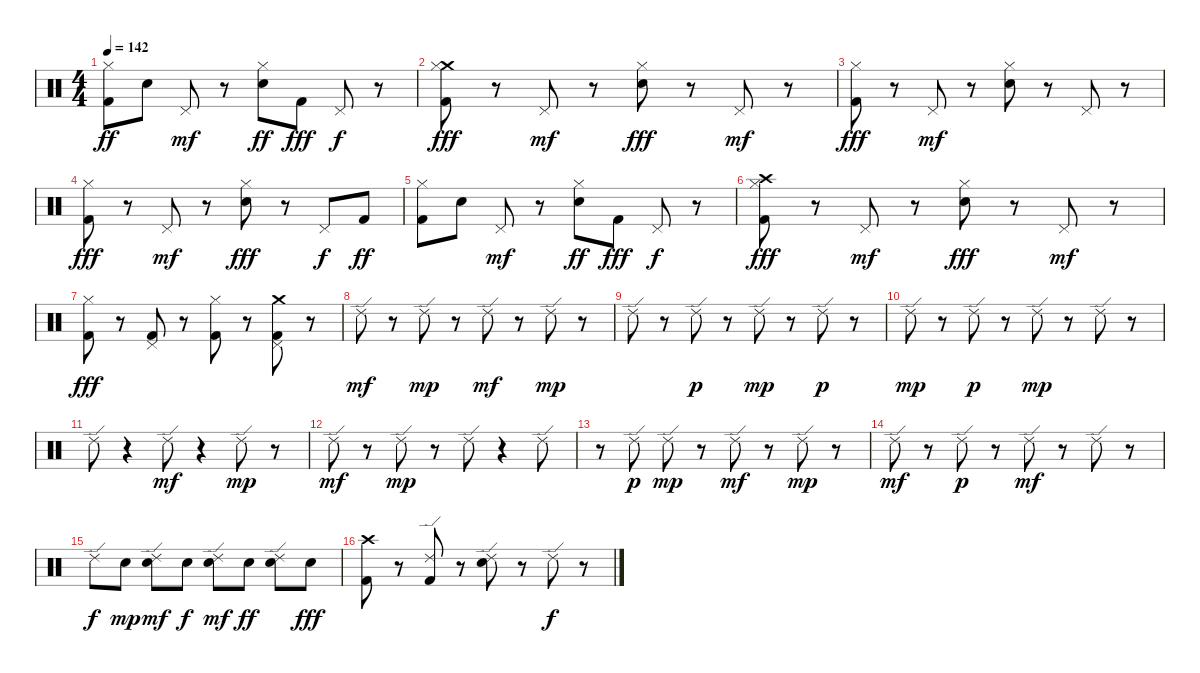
\track "" {instrument percussion}
\staff {score}
\articulation defaults
\ts (4 4)
\tempo 142
\clef neutral
\ks c
("Kick (hit) 2" "Hi-Hat (closed)").8{dy ff} "Electric Snare (hit)".8 "Pedal Hi-Hat (hit)".8{dy mf} r.8 ("Electric Snare (hit)" "Hi-Hat (closed)").8{dy ff} "Kick (hit) 2".8{dy fff} "Pedal Hi-Hat (hit)".8{dy f} r.8 |
("Crash medium (hit)" "Kick (hit) 2" "Hi-Hat (closed)").8{dy fff} r.8 "Pedal Hi-Hat (hit)".8{dy mf} r.8 ("Electric Snare (hit)" "Hi-Hat (closed)").8{dy fff} r.8 "Pedal Hi-Hat (hit)".8{dy mf} r.8 |
("Kick (hit) 2" "Hi-Hat (closed)").8{dy fff} r.8 "Pedal Hi-Hat (hit)".8{dy mf} r.8 ("Electric Snare (hit)" "Hi-Hat (closed)").8 r.8 "Pedal Hi-Hat (hit)".8 r.8 |
("Kick (hit) 2" "Hi-Hat (closed)").8{dy fff} r.8 "Pedal Hi-Hat (hit)".8{dy mf} r.8 ("Electric Snare (hit)" "Hi-Hat (closed)").8{dy fff} r.8 "Pedal Hi-Hat (hit)".8{dy f} "Kick (hit) 2".8{dy ff} |
("Kick (hit) 2" "Hi-Hat (closed)").8 "Electric Snare (hit)".8 "Pedal Hi-Hat (hit)".8{dy mf} r.8 ("Electric Snare (hit)" "Hi-Hat (closed)").8{dy ff} "Kick (hit) 2".8{dy fff} "Pedal Hi-Hat (hit)".8{dy f} r.8 |
("Crash high (hit)" "Kick (hit) 2" "Hi-Hat (closed)").8{dy fff} r.8 "Pedal Hi-Hat (hit)".8{dy mf} r.8 ("Electric Snare (hit)" "Hi-Hat (closed)").8{dy fff} r.8 "Pedal Hi-Hat (hit)".8{dy mf} r.8 |
("Kick (hit) 2" "Hi-Hat (closed)").8{dy fff} r.8 ("Pedal Hi-Hat (hit)" "Kick (hit) 2").8 r.8 ("Kick (hit) 2" "Hi-Hat (closed)").8 r.8 ("Crash medium (hit)" "Pedal Hi-Hat (hit)" "Kick (hit) 2").8 r.8 |
"Ride (edge) 2".8{dy mf} r.8 "Ride (edge) 2".8{dy mp} r.8 "Ride (edge) 2".8{dy mf} r.8 "Ride (edge) 2".8{dy mp} r.8 |
"Ride (edge) 2".8 r.8 "Ride (edge) 2".8{dy p} r.8 "Ride (edge) 2".8{dy mp} r.8 "Ride (edge) 2".8{dy p} r.8 |
"Ride (edge) 2".8{dy mp} r.8 "Ride (edge) 2".8{dy p} r.8 "Ride (edge) 2".8{dy mp} r.8 "Ride (edge) 2".8 r.8 |
"Ride (edge) 2".8 r.4 "Ride (edge) 2".8{dy mf} r.4 "Ride (edge) 2".8{dy mp} r.8 |
"Ride (edge) 2".8{dy mf} r.8 "Ride (edge) 2".8{dy mp} r.8 "Ride (edge) 2".8 r.4 "Ride (edge) 2".8 |
r.8 "Ride (edge) 2".8{dy p} "Ride (edge) 2".8{dy mp} r.8 "Ride (edge) 2".8{dy mf} r.8 "Ride (edge) 2".8{dy mp} r.8 |
"Ride (edge) 2".8{dy mf} r.8 "Ride (edge) 2".8{dy p} r.8 "Ride (edge) 2".8{dy mf} r.8 "Ride (edge) 2".8 r.8 |
"Ride (edge) 2".8{dy f} "Electric Snare (hit)".8{dy mp} ("Electric Snare (hit)" "Ride (edge) 2").8{dy mf} "Electric Snare (hit)".8{dy f} ("Electric Snare (hit)" "Ride (edge) 2").8{dy mf} "Electric Snare (hit)".8{dy ff} ("Electric Snare (hit)" "Ride (edge) 2").8 "Electric Snare (hit)".8{dy fff} |
("Kick (hit) 2" "Crash high (hit)").8 r.8 ("Ride (edge) 2" "Kick (hit) 2").8 r.8 ("Ride (edge) 2" "Electric Snare (hit)").8 r.8 "Ride (edge) 2".8{dy f} r.8
